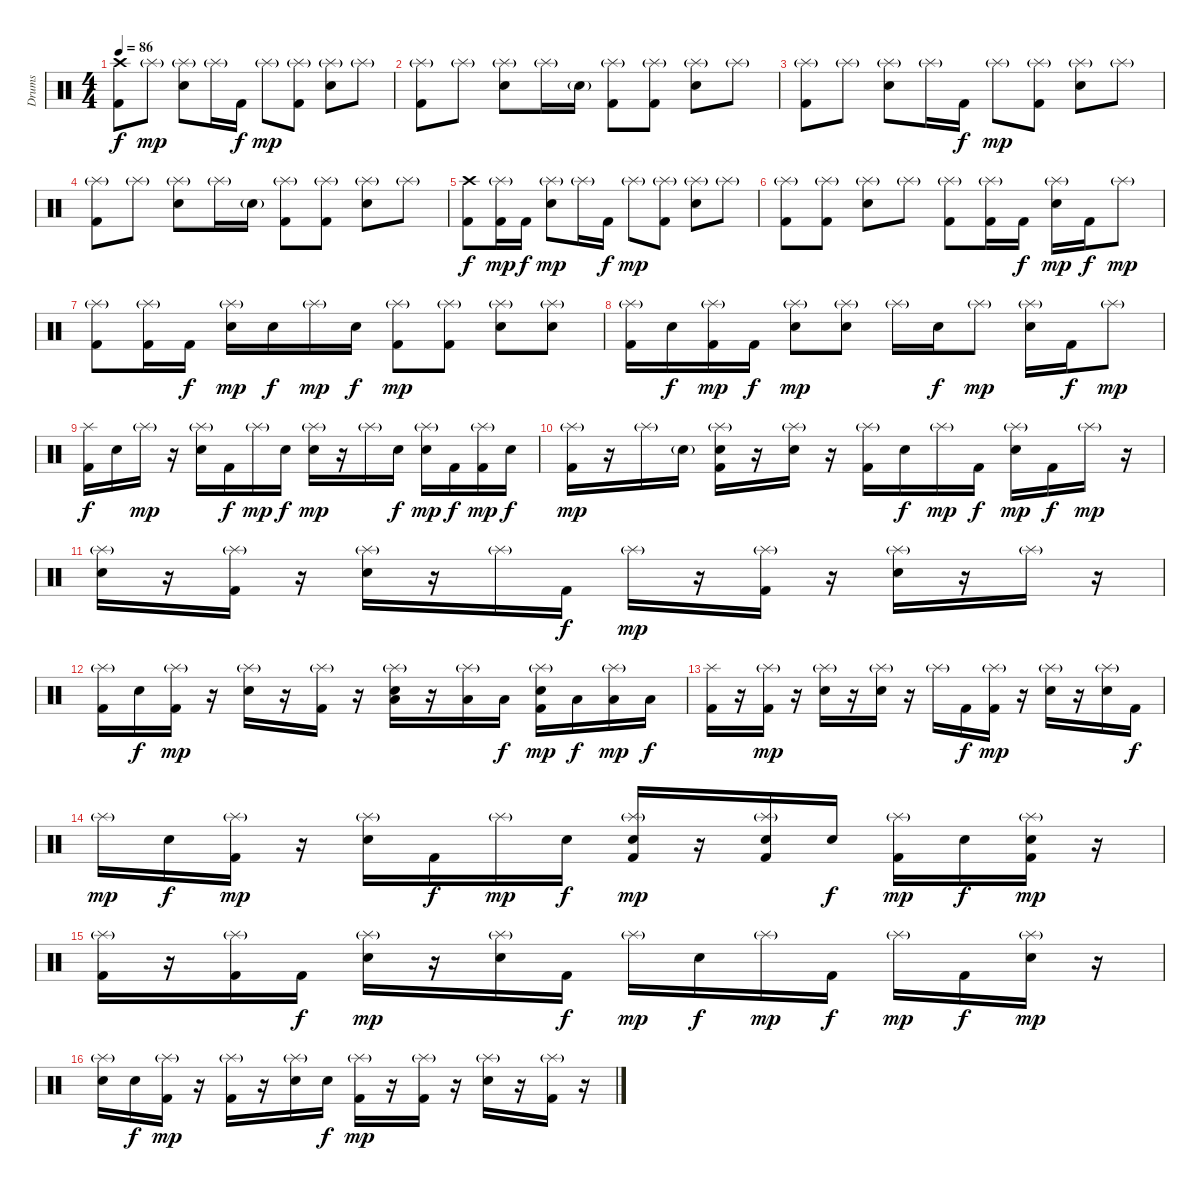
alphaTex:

\track ("Drums" "Drums") {instrument percussion}
\staff {score}
\articulation defaults
\ts (4 4)
\tempo 86
\clef neutral
\ks c
("Crash high (hit)" "Kick (hit) 2").8{dy f} "Splash (hit)"{g}.8{dy mp} ("Splash (hit)"{g} "Snare (hit) 2").8 "Splash (hit)"{g}.16 "Kick (hit) 2".16{dy f} "Splash (hit)"{g}.8{dy mp} ("Splash (hit)"{g} "Kick (hit) 2").8 ("Splash (hit)"{g} "Snare (hit) 2").8 "Splash (hit)"{g}.8 |
("Splash (hit)"{g} "Kick (hit) 2").8 "Splash (hit)"{g}.8 ("Splash (hit)"{g} "Snare (hit) 2").8 "Splash (hit)"{g}.16 "Snare (hit) 2"{g}.16 ("Splash (hit)"{g} "Kick (hit) 2").8 ("Splash (hit)"{g} "Kick (hit) 2").8 ("Splash (hit)"{g} "Snare (hit) 2").8 "Splash (hit)"{g}.8 |
("Splash (hit)"{g} "Kick (hit) 2").8 "Splash (hit)"{g}.8 ("Splash (hit)"{g} "Snare (hit) 2").8 "Splash (hit)"{g}.16 "Kick (hit) 2".16{dy f} "Splash (hit)"{g}.8{dy mp} ("Splash (hit)"{g} "Kick (hit) 2").8 ("Splash (hit)"{g} "Snare (hit) 2").8 "Splash (hit)"{g}.8 |
("Splash (hit)"{g} "Kick (hit) 2").8 "Splash (hit)"{g}.8 ("Splash (hit)"{g} "Snare (hit) 2").8 "Splash (hit)"{g}.16 "Snare (hit) 2"{g}.16 ("Splash (hit)"{g} "Kick (hit) 2").8 ("Splash (hit)"{g} "Kick (hit) 2").8 ("Splash (hit)"{g} "Snare (hit) 2").8 "Splash (hit)"{g}.8 |
("Crash high (hit)" "Kick (hit) 2").8{dy f} ("Splash (hit)"{g} "Kick (hit) 2").16{dy mp} "Kick (hit) 2".16{dy f} ("Splash (hit)"{g} "Snare (hit) 2").8{dy mp} "Splash (hit)"{g}.16 "Kick (hit) 2".16{dy f} "Splash (hit)"{g}.8{dy mp} ("Splash (hit)"{g} "Kick (hit) 2").8 ("Splash (hit)"{g} "Snare (hit) 2").8 "Splash (hit)"{g}.8 |
("Splash (hit)"{g} "Kick (hit) 2").8 ("Splash (hit)"{g} "Kick (hit) 2").8 ("Splash (hit)"{g} "Snare (hit) 2").8 "Splash (hit)"{g}.8 ("Splash (hit)"{g} "Kick (hit) 2").8 ("Splash (hit)"{g} "Kick (hit) 2").16 "Kick (hit) 2".16{dy f} ("Splash (hit)"{g} "Snare (hit) 2").16{dy mp} "Kick (hit) 2".16{dy f} "Splash (hit)"{g}.8{dy mp} |
("Splash (hit)"{g} "Kick (hit) 2").8 ("Splash (hit)"{g} "Kick (hit) 2").16 "Kick (hit) 2".16{dy f} ("Splash (hit)"{g} "Snare (hit) 2").16{dy mp} "Snare (hit) 2".16{dy f} "Splash (hit)"{g}.16{dy mp} "Snare (hit) 2".16{dy f} ("Splash (hit)"{g} "Kick (hit) 2").8{dy mp} ("Splash (hit)"{g} "Kick (hit) 2").8 ("Splash (hit)"{g} "Snare (hit) 2").8 ("Splash (hit)"{g} "Snare (hit) 2").8 |
("Splash (hit)"{g} "Kick (hit) 2").16 "Snare (hit) 2".16{dy f} ("Splash (hit)"{g} "Kick (hit) 2").16{dy mp} "Kick (hit) 2".16{dy f} ("Splash (hit)"{g} "Snare (hit) 2").8{dy mp} ("Splash (hit)"{g} "Snare (hit) 2").8 "Splash (hit)"{g}.16 "Snare (hit) 2".16{dy f} "Splash (hit)"{g}.8{dy mp} ("Splash (hit)"{g} "Snare (hit) 2").16 "Kick (hit) 2".16{dy f} "Splash (hit)"{g}.8{dy mp} |
("Splash (hit)" "Kick (hit) 2").16{dy f} "Snare (hit) 2".16 "Splash (hit)"{g}.16{dy mp} r.16 ("Splash (hit)"{g} "Snare (hit) 2").16 "Kick (hit) 2".16{dy f} "Splash (hit)"{g}.16{dy mp} "Snare (hit) 2".16{dy f} ("Splash (hit)"{g} "Snare (hit) 2").16{dy mp} r.16 "Splash (hit)"{g}.16 "Snare (hit) 2".16{dy f} ("Splash (hit)"{g} "Snare (hit) 2").16{dy mp} "Kick (hit) 2".16{dy f} ("Splash (hit)"{g} "Kick (hit) 2").16{dy mp} "Snare (hit) 2".16{dy f} |
("Splash (hit)"{g} "Kick (hit) 2").16{dy mp} r.16 "Splash (hit)"{g}.16 "Snare (hit) 2"{g}.16 ("Splash (hit)"{g} "Snare (hit) 2" "Kick (hit) 2").16 r.16 ("Splash (hit)"{g} "Snare (hit) 2").16 r.16 ("Splash (hit)"{g} "Kick (hit) 2").16 "Snare (hit) 2".16{dy f} "Splash (hit)"{g}.16{dy mp} "Kick (hit) 2".16{dy f} ("Splash (hit)"{g} "Snare (hit) 2").16{dy mp} "Kick (hit) 2".16{dy f} "Splash (hit)"{g}.16{dy mp} r.16 |
("Splash (hit)"{g} "Snare (hit) 2").16 r.16 ("Splash (hit)"{g} "Kick (hit) 2").16 r.16 ("Splash (hit)"{g} "Snare (hit) 2").16 r.16 "Splash (hit)"{g}.16 "Kick (hit) 2".16{dy f} "Splash (hit)"{g}.16{dy mp} r.16 ("Splash (hit)"{g} "Kick (hit) 2").16 r.16 ("Splash (hit)"{g} "Snare (hit) 2").16 r.16 "Splash (hit)"{g}.16 r.16 |
("Splash (hit)"{g} "Kick (hit) 2").16 "Snare (hit) 2".16{dy f} ("Splash (hit)"{g} "Kick (hit) 2").16{dy mp} r.16 ("Splash (hit)"{g} "Snare (hit) 2").16 r.16 ("Splash (hit)"{g} "Kick (hit) 2").16 r.16 ("Splash (hit)"{g} "Low Tom (hit)" "Snare (hit) 2").16 r.16 ("Splash (hit)"{g} "Low Tom (hit)").16 "Low Tom (hit)".16{dy f} ("Splash (hit)"{g} "Snare (hit) 2" "Kick (hit) 2").16{dy mp} "Low Floor Tom (hit)".16{dy f} ("Splash (hit)"{g} "Low Floor Tom (hit)").16{dy mp} "Low Floor Tom (hit)".16{dy f} |
("Splash (hit)" "Kick (hit) 2").16 r.16 ("Splash (hit)"{g} "Kick (hit) 2").16{dy mp} r.16 ("Splash (hit)"{g} "Snare (hit) 2").16 r.16 ("Splash (hit)"{g} "Snare (hit) 2").16 r.16 "Splash (hit)"{g}.16 "Kick (hit) 2".16{dy f} ("Splash (hit)"{g} "Kick (hit) 2").16{dy mp} r.16 ("Splash (hit)"{g} "Snare (hit) 2").16 r.16 ("Splash (hit)"{g} "Snare (hit) 2").16 "Kick (hit) 2".16{dy f} |
"Splash (hit)"{g}.16{dy mp} "Snare (hit) 2".16{dy f} ("Splash (hit)"{g} "Kick (hit) 2").16{dy mp} r.16 ("Splash (hit)"{g} "Snare (hit) 2").16 "Kick (hit) 2".16{dy f} "Splash (hit)"{g}.16{dy mp} "Snare (hit) 2".16{dy f} ("Splash (hit)"{g} "Snare (hit) 2" "Kick (hit) 2").16{dy mp} r.16 ("Splash (hit)"{g} "Snare (hit) 2" "Kick (hit) 2").16 "Snare (hit) 2".16{dy f} ("Splash (hit)"{g} "Kick (hit) 2").16{dy mp} "Snare (hit) 2".16{dy f} ("Splash (hit)"{g} "Snare (hit) 2" "Kick (hit) 2").16{dy mp} r.16 |
("Splash (hit)"{g} "Kick (hit) 2").16 r.16 ("Splash (hit)"{g} "Kick (hit) 2").16 "Kick (hit) 2".16{dy f} ("Splash (hit)"{g} "Snare (hit) 2").16{dy mp} r.16 ("Splash (hit)"{g} "Snare (hit) 2").16 "Kick (hit) 2".16{dy f} "Splash (hit)"{g}.16{dy mp} "Snare (hit) 2".16{dy f} "Splash (hit)"{g}.16{dy mp} "Kick (hit) 2".16{dy f} "Splash (hit)"{g}.16{dy mp} "Kick (hit) 2".16{dy f} ("Splash (hit)"{g} "Snare (hit) 2").16{dy mp} r.16 |
("Splash (hit)"{g} "Snare (hit) 2").16 "Snare (hit) 2".16{dy f} ("Splash (hit)"{g} "Kick (hit) 2").16{dy mp} r.16 ("Splash (hit)"{g} "Kick (hit) 2").16 r.16 ("Splash (hit)"{g} "Snare (hit) 2").16 "Snare (hit) 2".16{dy f} ("Splash (hit)"{g} "Kick (hit) 2").16{dy mp} r.16 ("Splash (hit)"{g} "Kick (hit) 2").16 r.16 ("Splash (hit)"{g} "Snare (hit) 2").16 r.16 ("Splash (hit)"{g} "Kick (hit) 2").16 r.16
